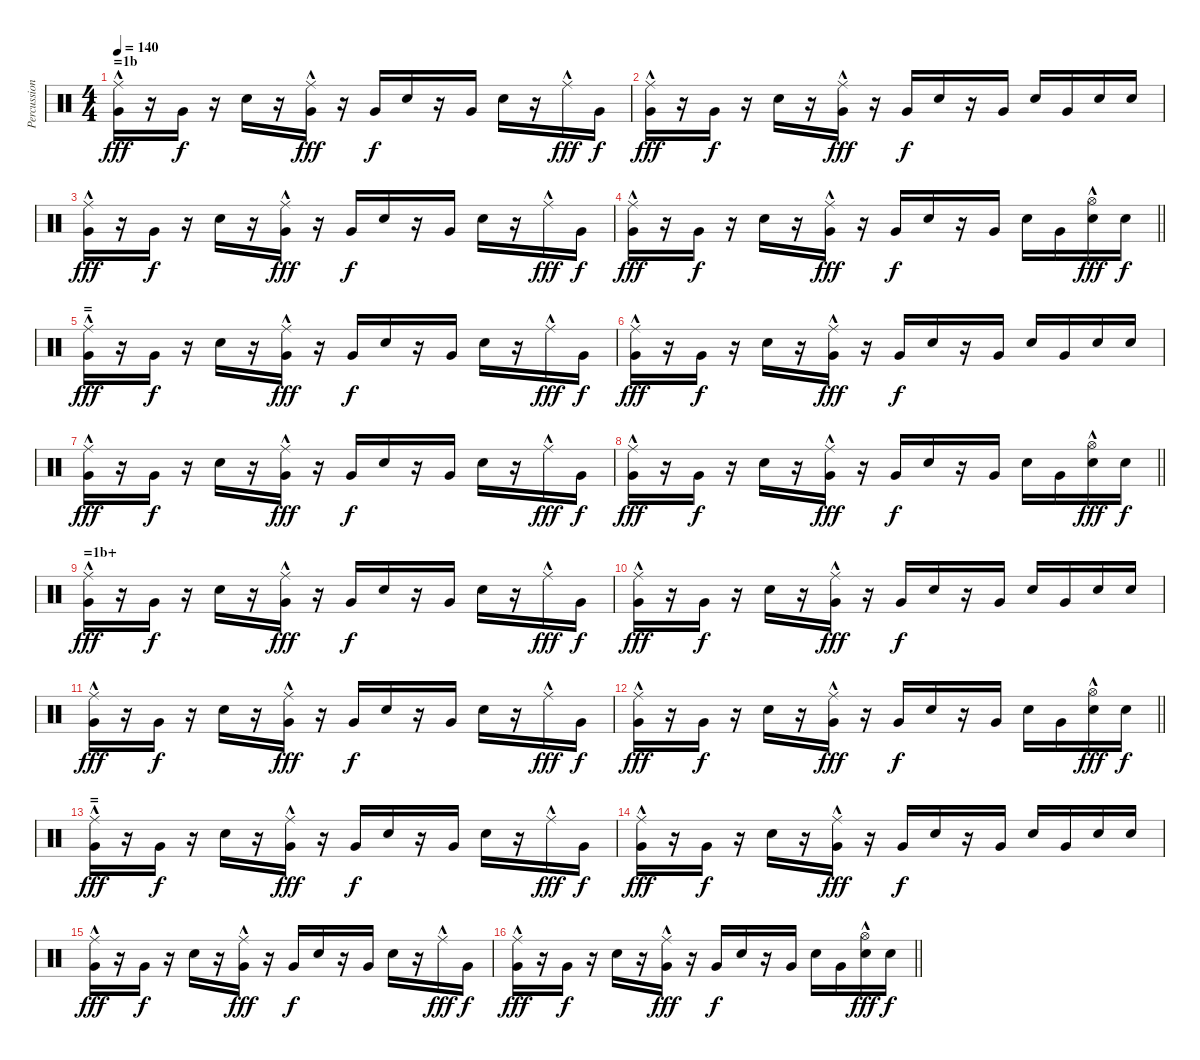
\track ("Percussion" "Percussion") {instrument percussion}
\staff {score}
\articulation defaults
\ts (4 4)
\section ("" "=1b")
\tempo 140
\clef neutral
\ks c
("Very Low Tom (hit)" "Ride (middle)"{hac}).16{dy fff} r.16 "Very Low Tom (hit)".16{dy f} r.16 "Electric Snare (hit)".16 r.16 ("Very Low Tom (hit)" "Ride (middle)"{hac}).16{dy fff} r.16 "Very Low Tom (hit)".16{dy f} "Electric Snare (hit)".16 r.16 "Very Low Tom (hit)".16 "Electric Snare (hit)".16 r.16 "Ride (middle)"{hac}.16{dy fff} "Very Low Tom (hit)".16{dy f} |
("Very Low Tom (hit)" "Ride (middle)"{hac}).16{dy fff} r.16 "Very Low Tom (hit)".16{dy f} r.16 "Electric Snare (hit)".16 r.16 ("Very Low Tom (hit)" "Ride (middle)"{hac}).16{dy fff} r.16 "Very Low Tom (hit)".16{dy f} "Electric Snare (hit)".16 r.16 "Very Low Tom (hit)".16 "Electric Snare (hit)".16 "Very Low Tom (hit)".16 "Electric Snare (hit)".16 "Electric Snare (hit)".16 |
("Very Low Tom (hit)" "Ride (middle)"{hac}).16{dy fff} r.16 "Very Low Tom (hit)".16{dy f} r.16 "Electric Snare (hit)".16 r.16 ("Very Low Tom (hit)" "Ride (middle)"{hac}).16{dy fff} r.16 "Very Low Tom (hit)".16{dy f} "Electric Snare (hit)".16 r.16 "Very Low Tom (hit)".16 "Electric Snare (hit)".16 r.16 "Ride (middle)"{hac}.16{dy fff} "Very Low Tom (hit)".16{dy f} |
\barLineRight lightlight
("Very Low Tom (hit)" "Ride (middle)"{hac}).16{dy fff} r.16 "Very Low Tom (hit)".16{dy f} r.16 "Electric Snare (hit)".16 r.16 ("Very Low Tom (hit)" "Ride (middle)"{hac}).16{dy fff} r.16 "Very Low Tom (hit)".16{dy f} "Electric Snare (hit)".16 r.16 "Very Low Tom (hit)".16 "Electric Snare (hit)".16 "Very Low Tom (hit)".16 ("Electric Snare (hit)" "Hi-Hat (open)"{hac}).16{dy fff} "Electric Snare (hit)".16{dy f} |
\section ("" "=")
("Very Low Tom (hit)" "Ride (middle)"{hac}).16{dy fff} r.16 "Very Low Tom (hit)".16{dy f} r.16 "Electric Snare (hit)".16 r.16 ("Very Low Tom (hit)" "Ride (middle)"{hac}).16{dy fff} r.16 "Very Low Tom (hit)".16{dy f} "Electric Snare (hit)".16 r.16 "Very Low Tom (hit)".16 "Electric Snare (hit)".16 r.16 "Ride (middle)"{hac}.16{dy fff} "Very Low Tom (hit)".16{dy f} |
("Very Low Tom (hit)" "Ride (middle)"{hac}).16{dy fff} r.16 "Very Low Tom (hit)".16{dy f} r.16 "Electric Snare (hit)".16 r.16 ("Very Low Tom (hit)" "Ride (middle)"{hac}).16{dy fff} r.16 "Very Low Tom (hit)".16{dy f} "Electric Snare (hit)".16 r.16 "Very Low Tom (hit)".16 "Electric Snare (hit)".16 "Very Low Tom (hit)".16 "Electric Snare (hit)".16 "Electric Snare (hit)".16 |
("Very Low Tom (hit)" "Ride (middle)"{hac}).16{dy fff} r.16 "Very Low Tom (hit)".16{dy f} r.16 "Electric Snare (hit)".16 r.16 ("Very Low Tom (hit)" "Ride (middle)"{hac}).16{dy fff} r.16 "Very Low Tom (hit)".16{dy f} "Electric Snare (hit)".16 r.16 "Very Low Tom (hit)".16 "Electric Snare (hit)".16 r.16 "Ride (middle)"{hac}.16{dy fff} "Very Low Tom (hit)".16{dy f} |
\barLineRight lightlight
("Very Low Tom (hit)" "Ride (middle)"{hac}).16{dy fff} r.16 "Very Low Tom (hit)".16{dy f} r.16 "Electric Snare (hit)".16 r.16 ("Very Low Tom (hit)" "Ride (middle)"{hac}).16{dy fff} r.16 "Very Low Tom (hit)".16{dy f} "Electric Snare (hit)".16 r.16 "Very Low Tom (hit)".16 "Electric Snare (hit)".16 "Very Low Tom (hit)".16 ("Electric Snare (hit)" "Hi-Hat (open)"{hac}).16{dy fff} "Electric Snare (hit)".16{dy f} |
\section ("" "=1b+")
("Very Low Tom (hit)" "Ride (middle)"{hac}).16{dy fff} r.16 "Very Low Tom (hit)".16{dy f} r.16 "Electric Snare (hit)".16 r.16 ("Very Low Tom (hit)" "Ride (middle)"{hac}).16{dy fff} r.16 "Very Low Tom (hit)".16{dy f} "Electric Snare (hit)".16 r.16 "Very Low Tom (hit)".16 "Electric Snare (hit)".16 r.16 "Ride (middle)"{hac}.16{dy fff} "Very Low Tom (hit)".16{dy f} |
("Very Low Tom (hit)" "Ride (middle)"{hac}).16{dy fff} r.16 "Very Low Tom (hit)".16{dy f} r.16 "Electric Snare (hit)".16 r.16 ("Very Low Tom (hit)" "Ride (middle)"{hac}).16{dy fff} r.16 "Very Low Tom (hit)".16{dy f} "Electric Snare (hit)".16 r.16 "Very Low Tom (hit)".16 "Electric Snare (hit)".16 "Very Low Tom (hit)".16 "Electric Snare (hit)".16 "Electric Snare (hit)".16 |
("Very Low Tom (hit)" "Ride (middle)"{hac}).16{dy fff} r.16 "Very Low Tom (hit)".16{dy f} r.16 "Electric Snare (hit)".16 r.16 ("Very Low Tom (hit)" "Ride (middle)"{hac}).16{dy fff} r.16 "Very Low Tom (hit)".16{dy f} "Electric Snare (hit)".16 r.16 "Very Low Tom (hit)".16 "Electric Snare (hit)".16 r.16 "Ride (middle)"{hac}.16{dy fff} "Very Low Tom (hit)".16{dy f} |
\barLineRight lightlight
("Very Low Tom (hit)" "Ride (middle)"{hac}).16{dy fff} r.16 "Very Low Tom (hit)".16{dy f} r.16 "Electric Snare (hit)".16 r.16 ("Very Low Tom (hit)" "Ride (middle)"{hac}).16{dy fff} r.16 "Very Low Tom (hit)".16{dy f} "Electric Snare (hit)".16 r.16 "Very Low Tom (hit)".16 "Electric Snare (hit)".16 "Very Low Tom (hit)".16 ("Electric Snare (hit)" "Hi-Hat (open)"{hac}).16{dy fff} "Electric Snare (hit)".16{dy f} |
\section ("" "=")
("Very Low Tom (hit)" "Ride (middle)"{hac}).16{dy fff} r.16 "Very Low Tom (hit)".16{dy f} r.16 "Electric Snare (hit)".16 r.16 ("Very Low Tom (hit)" "Ride (middle)"{hac}).16{dy fff} r.16 "Very Low Tom (hit)".16{dy f} "Electric Snare (hit)".16 r.16 "Very Low Tom (hit)".16 "Electric Snare (hit)".16 r.16 "Ride (middle)"{hac}.16{dy fff} "Very Low Tom (hit)".16{dy f} |
("Very Low Tom (hit)" "Ride (middle)"{hac}).16{dy fff} r.16 "Very Low Tom (hit)".16{dy f} r.16 "Electric Snare (hit)".16 r.16 ("Very Low Tom (hit)" "Ride (middle)"{hac}).16{dy fff} r.16 "Very Low Tom (hit)".16{dy f} "Electric Snare (hit)".16 r.16 "Very Low Tom (hit)".16 "Electric Snare (hit)".16 "Very Low Tom (hit)".16 "Electric Snare (hit)".16 "Electric Snare (hit)".16 |
("Very Low Tom (hit)" "Ride (middle)"{hac}).16{dy fff} r.16 "Very Low Tom (hit)".16{dy f} r.16 "Electric Snare (hit)".16 r.16 ("Very Low Tom (hit)" "Ride (middle)"{hac}).16{dy fff} r.16 "Very Low Tom (hit)".16{dy f} "Electric Snare (hit)".16 r.16 "Very Low Tom (hit)".16 "Electric Snare (hit)".16 r.16 "Ride (middle)"{hac}.16{dy fff} "Very Low Tom (hit)".16{dy f} |
\barLineRight lightlight
("Very Low Tom (hit)" "Ride (middle)"{hac}).16{dy fff} r.16 "Very Low Tom (hit)".16{dy f} r.16 "Electric Snare (hit)".16 r.16 ("Very Low Tom (hit)" "Ride (middle)"{hac}).16{dy fff} r.16 "Very Low Tom (hit)".16{dy f} "Electric Snare (hit)".16 r.16 "Very Low Tom (hit)".16 "Electric Snare (hit)".16 "Very Low Tom (hit)".16 ("Electric Snare (hit)" "Hi-Hat (open)"{hac}).16{dy fff} "Electric Snare (hit)".16{dy f}
